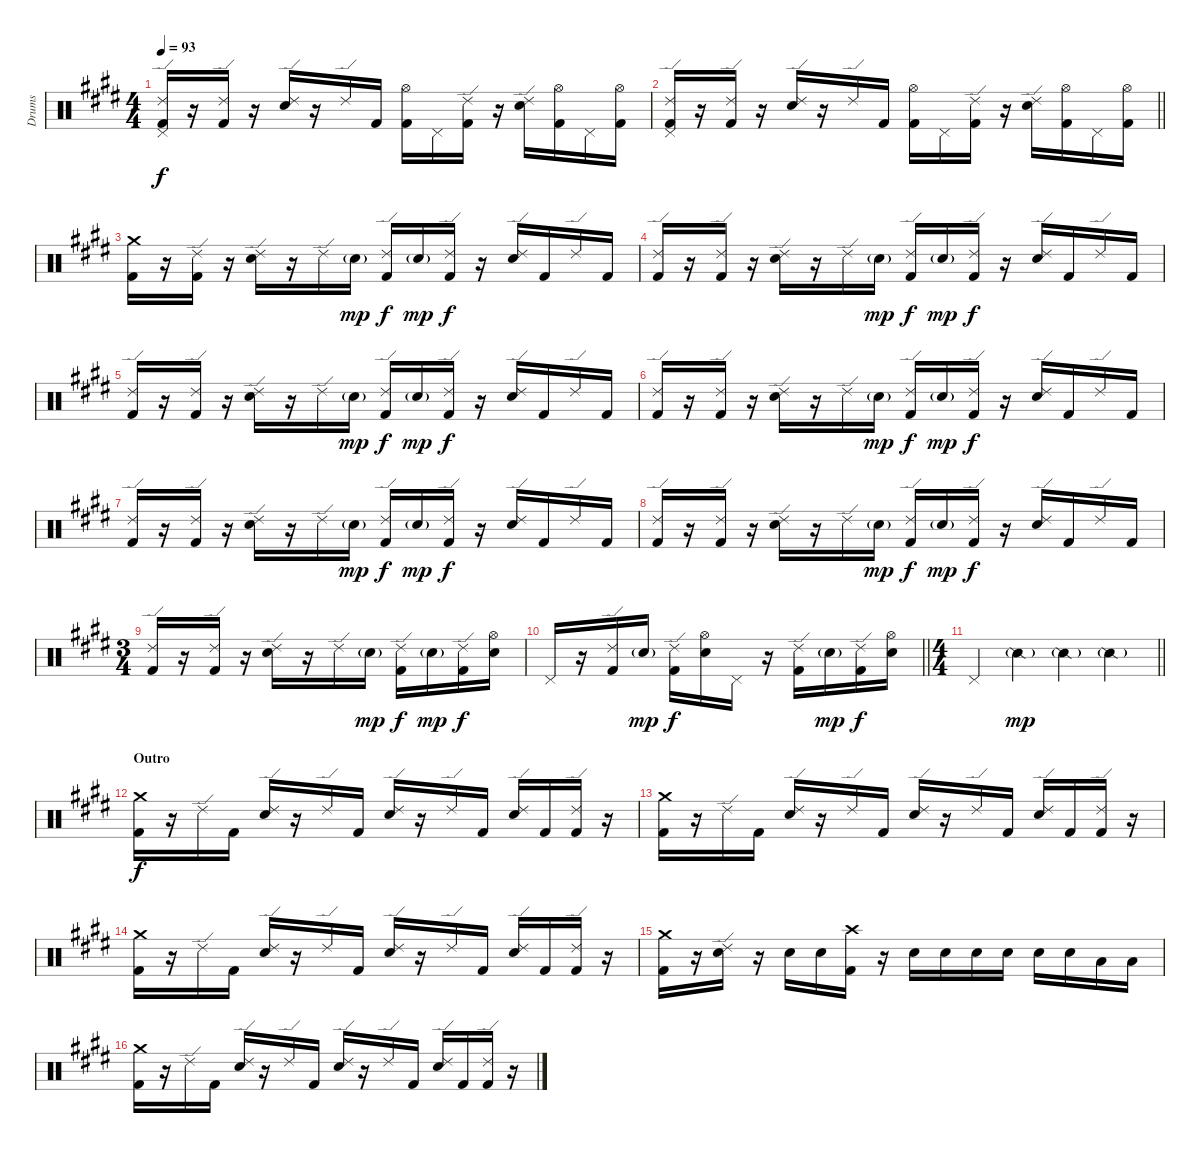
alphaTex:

\track ("Drums" "Drums") {instrument percussion}
\staff {score}
\articulation defaults
\ts (4 4)
\tempo 93
\clef neutral
\ks e
("Ride (edge) 2" "Pedal Hi-Hat (hit)" "Kick (hit) 2").16{dy f} r.16 ("Ride (edge) 2" "Kick (hit) 2").16 r.16 ("Ride (edge) 2" "Snare (hit) 2").16 r.16 "Ride (edge) 2".16 "Kick (hit) 2".16 ("Hi-Hat (open)" "Kick (hit) 2").16 "Pedal Hi-Hat (hit)".16 ("Ride (edge) 2" "Kick (hit) 2").16 r.16 ("Ride (edge) 2" "Snare (hit) 2").16 ("Hi-Hat (open)" "Kick (hit) 2").16 "Pedal Hi-Hat (hit)".16 ("Hi-Hat (open)" "Kick (hit) 2").16 |
\barLineRight lightlight
("Ride (edge) 2" "Pedal Hi-Hat (hit)" "Kick (hit) 2").16 r.16 ("Ride (edge) 2" "Kick (hit) 2").16 r.16 ("Ride (edge) 2" "Snare (hit) 2").16 r.16 "Ride (edge) 2".16 "Kick (hit) 2".16 ("Hi-Hat (open)" "Kick (hit) 2").16 "Pedal Hi-Hat (hit)".16 ("Ride (edge) 2" "Kick (hit) 2").16 r.16 ("Ride (edge) 2" "Snare (hit) 2").16 ("Hi-Hat (open)" "Kick (hit) 2").16 "Pedal Hi-Hat (hit)".16 ("Hi-Hat (open)" "Kick (hit) 2").16 |
("Crash medium (hit)" "Kick (hit) 2").16 r.16 ("Ride (edge) 2" "Kick (hit) 2").16 r.16 ("Ride (edge) 2" "Snare (hit) 2").16 r.16 "Ride (edge) 2".16 "Snare (hit) 2"{g}.16{dy mp} ("Ride (edge) 2" "Kick (hit) 2").16{dy f} "Snare (hit) 2"{g}.16{dy mp} ("Ride (edge) 2" "Kick (hit) 2").16{dy f} r.16 ("Ride (edge) 2" "Snare (hit) 2").16 "Kick (hit) 2".16 "Ride (edge) 2".16 "Kick (hit) 2".16 |
("Ride (edge) 2" "Kick (hit) 2").16 r.16 ("Ride (edge) 2" "Kick (hit) 2").16 r.16 ("Ride (edge) 2" "Snare (hit) 2").16 r.16 "Ride (edge) 2".16 "Snare (hit) 2"{g}.16{dy mp} ("Ride (edge) 2" "Kick (hit) 2").16{dy f} "Snare (hit) 2"{g}.16{dy mp} ("Ride (edge) 2" "Kick (hit) 2").16{dy f} r.16 ("Ride (edge) 2" "Snare (hit) 2").16 "Kick (hit) 2".16 "Ride (edge) 2".16 "Kick (hit) 2".16 |
("Ride (edge) 2" "Kick (hit) 2").16 r.16 ("Ride (edge) 2" "Kick (hit) 2").16 r.16 ("Ride (edge) 2" "Snare (hit) 2").16 r.16 "Ride (edge) 2".16 "Snare (hit) 2"{g}.16{dy mp} ("Ride (edge) 2" "Kick (hit) 2").16{dy f} "Snare (hit) 2"{g}.16{dy mp} ("Ride (edge) 2" "Kick (hit) 2").16{dy f} r.16 ("Ride (edge) 2" "Snare (hit) 2").16 "Kick (hit) 2".16 "Ride (edge) 2".16 "Kick (hit) 2".16 |
("Ride (edge) 2" "Kick (hit) 2").16 r.16 ("Ride (edge) 2" "Kick (hit) 2").16 r.16 ("Ride (edge) 2" "Snare (hit) 2").16 r.16 "Ride (edge) 2".16 "Snare (hit) 2"{g}.16{dy mp} ("Ride (edge) 2" "Kick (hit) 2").16{dy f} "Snare (hit) 2"{g}.16{dy mp} ("Ride (edge) 2" "Kick (hit) 2").16{dy f} r.16 ("Ride (edge) 2" "Snare (hit) 2").16 "Kick (hit) 2".16 "Ride (edge) 2".16 "Kick (hit) 2".16 |
("Ride (edge) 2" "Kick (hit) 2").16 r.16 ("Ride (edge) 2" "Kick (hit) 2").16 r.16 ("Ride (edge) 2" "Snare (hit) 2").16 r.16 "Ride (edge) 2".16 "Snare (hit) 2"{g}.16{dy mp} ("Ride (edge) 2" "Kick (hit) 2").16{dy f} "Snare (hit) 2"{g}.16{dy mp} ("Ride (edge) 2" "Kick (hit) 2").16{dy f} r.16 ("Ride (edge) 2" "Snare (hit) 2").16 "Kick (hit) 2".16 "Ride (edge) 2".16 "Kick (hit) 2".16 |
("Ride (edge) 2" "Kick (hit) 2").16 r.16 ("Ride (edge) 2" "Kick (hit) 2").16 r.16 ("Ride (edge) 2" "Snare (hit) 2").16 r.16 "Ride (edge) 2".16 "Snare (hit) 2"{g}.16{dy mp} ("Ride (edge) 2" "Kick (hit) 2").16{dy f} "Snare (hit) 2"{g}.16{dy mp} ("Ride (edge) 2" "Kick (hit) 2").16{dy f} r.16 ("Ride (edge) 2" "Snare (hit) 2").16 "Kick (hit) 2".16 "Ride (edge) 2".16 "Kick (hit) 2".16 |
\ts (3 4)
("Ride (edge) 2" "Kick (hit) 2").16 r.16 ("Ride (edge) 2" "Kick (hit) 2").16 r.16 ("Ride (edge) 2" "Snare (hit) 2").16 r.16 "Ride (edge) 2".16 "Snare (hit) 2"{g}.16{dy mp} ("Ride (edge) 2" "Kick (hit) 2").16{dy f} "Snare (hit) 2"{g}.16{dy mp} ("Ride (edge) 2" "Kick (hit) 2").16{dy f} ("Hi-Hat (open)" "Snare (hit) 2").16 |
\barLineRight lightlight "Pedal Hi-Hat (hit)".16
r.16 ("Ride (edge) 2" "Kick (hit) 2").16 "Snare (hit) 2"{g}.16{dy mp} ("Ride (edge) 2" "Kick (hit) 2").16{dy f} ("Hi-Hat (open)" "Snare (hit) 2").16 "Pedal Hi-Hat (hit)".16 r.16 ("Ride (edge) 2" "Kick (hit) 2").16 "Snare (hit) 2"{g}.16{dy mp} ("Ride (edge) 2" "Kick (hit) 2").16{dy f} ("Hi-Hat (open)" "Snare (hit) 2").16 |
\ts (4 4)
\barLineRight lightlight "Pedal Hi-Hat (hit)".4 "Snare (side stick) 2"{g}.4{dy mp} "Snare (side stick) 2"{g}.4 "Snare (side stick) 2"{g}.4
|
\section ("" "Outro")
("Crash medium (hit)" "Kick (hit) 2").16{dy f} r.16 "Ride (edge) 2".16 "Kick (hit) 2".16 ("Ride (edge) 2" "Snare (hit) 2").16 r.16 "Ride (edge) 2".16 "Kick (hit) 2".16 ("Ride (edge) 2" "Snare (hit) 2").16 r.16 "Ride (edge) 2".16 "Kick (hit) 2".16 ("Ride (edge) 2" "Snare (hit) 2").16 "Kick (hit) 2".16 ("Ride (edge) 2" "Kick (hit) 2").16 r.16 |
("Crash medium (hit)" "Kick (hit) 2").16 r.16 "Ride (edge) 2".16 "Kick (hit) 2".16 ("Ride (edge) 2" "Snare (hit) 2").16 r.16 "Ride (edge) 2".16 "Kick (hit) 2".16 ("Ride (edge) 2" "Snare (hit) 2").16 r.16 "Ride (edge) 2".16 "Kick (hit) 2".16 ("Ride (edge) 2" "Snare (hit) 2").16 "Kick (hit) 2".16 ("Ride (edge) 2" "Kick (hit) 2").16 r.16 |
("Crash medium (hit)" "Kick (hit) 2").16 r.16 "Ride (edge) 2".16 "Kick (hit) 2".16 ("Ride (edge) 2" "Snare (hit) 2").16 r.16 "Ride (edge) 2".16 "Kick (hit) 2".16 ("Ride (edge) 2" "Snare (hit) 2").16 r.16 "Ride (edge) 2".16 "Kick (hit) 2".16 ("Ride (edge) 2" "Snare (hit) 2").16 "Kick (hit) 2".16 ("Ride (edge) 2" "Kick (hit) 2").16 r.16 |
("Crash medium (hit)" "Kick (hit) 2").16 r.16 ("Ride (edge) 2" "Snare (hit) 2").16 r.16 "Snare (hit) 2".16 "Snare (hit) 2".16 ("Crash high (hit)" "Kick (hit) 2").16 r.16 "Snare (hit) 2".16 "Snare (hit) 2".16 "Snare (hit) 2".16 "Snare (hit) 2".16 "Snare (hit) 2".16 "Snare (hit) 2".16 "Low Tom (hit)".16 "Low Tom (hit)".16 |
("Crash medium (hit)" "Kick (hit) 2").16 r.16 "Ride (edge) 2".16 "Kick (hit) 2".16 ("Ride (edge) 2" "Snare (hit) 2").16 r.16 "Ride (edge) 2".16 "Kick (hit) 2".16 ("Ride (edge) 2" "Snare (hit) 2").16 r.16 "Ride (edge) 2".16 "Kick (hit) 2".16 ("Ride (edge) 2" "Snare (hit) 2").16 "Kick (hit) 2".16 ("Ride (edge) 2" "Kick (hit) 2").16 r.16
